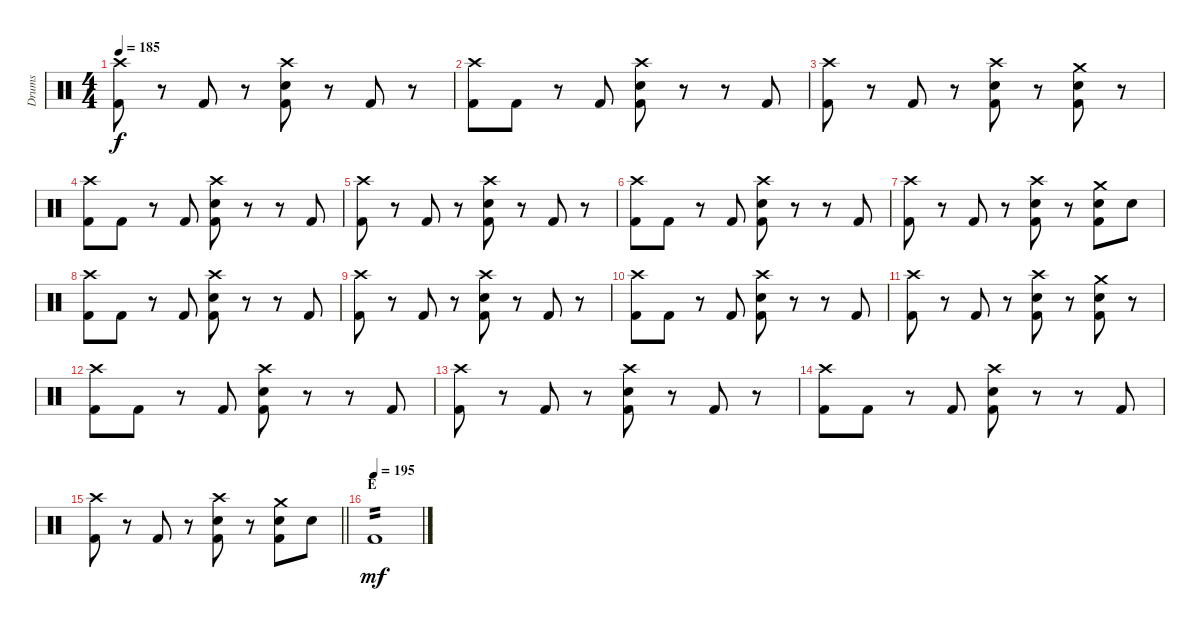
\track ("Drums" "Drums") {instrument percussion}
\staff {score}
\articulation defaults
\ts (4 4)
\tempo 185
\clef neutral
\ks c
("Crash high (hit)" "Kick (hit) 2").8{dy f} r.8 "Kick (hit) 2".8 r.8 ("Crash high (hit)" "Snare (hit) 2" "Kick (hit) 2").8 r.8 "Kick (hit) 2".8 r.8 |
("Crash high (hit)" "Kick (hit) 2").8 "Kick (hit) 2".8 r.8 "Kick (hit) 2".8 ("Crash high (hit)" "Snare (hit) 2" "Kick (hit) 2").8 r.8 r.8 "Kick (hit) 2".8 |
("Crash high (hit)" "Kick (hit) 2").8 r.8 "Kick (hit) 2".8 r.8 ("Crash high (hit)" "Snare (hit) 2" "Kick (hit) 2").8 r.8 ("Crash medium (hit)" "Snare (hit) 2" "Kick (hit) 2").8 r.8 |
("Crash high (hit)" "Kick (hit) 2").8 "Kick (hit) 2".8 r.8 "Kick (hit) 2".8 ("Crash high (hit)" "Snare (hit) 2" "Kick (hit) 2").8 r.8 r.8 "Kick (hit) 2".8 |
("Crash high (hit)" "Kick (hit) 2").8 r.8 "Kick (hit) 2".8 r.8 ("Crash high (hit)" "Snare (hit) 2" "Kick (hit) 2").8 r.8 "Kick (hit) 2".8 r.8 |
("Crash high (hit)" "Kick (hit) 2").8 "Kick (hit) 2".8 r.8 "Kick (hit) 2".8 ("Crash high (hit)" "Snare (hit) 2" "Kick (hit) 2").8 r.8 r.8 "Kick (hit) 2".8 |
("Crash high (hit)" "Kick (hit) 2").8 r.8 "Kick (hit) 2".8 r.8 ("Crash high (hit)" "Snare (hit) 2" "Kick (hit) 2").8 r.8 ("Crash medium (hit)" "Snare (hit) 2" "Kick (hit) 2").8 "Snare (hit) 2".8 |
("Crash high (hit)" "Kick (hit) 2").8 "Kick (hit) 2".8 r.8 "Kick (hit) 2".8 ("Crash high (hit)" "Snare (hit) 2" "Kick (hit) 2").8 r.8 r.8 "Kick (hit) 2".8 |
("Crash high (hit)" "Kick (hit) 2").8 r.8 "Kick (hit) 2".8 r.8 ("Crash high (hit)" "Snare (hit) 2" "Kick (hit) 2").8 r.8 "Kick (hit) 2".8 r.8 |
("Crash high (hit)" "Kick (hit) 2").8 "Kick (hit) 2".8 r.8 "Kick (hit) 2".8 ("Crash high (hit)" "Snare (hit) 2" "Kick (hit) 2").8 r.8 r.8 "Kick (hit) 2".8 |
("Crash high (hit)" "Kick (hit) 2").8 r.8 "Kick (hit) 2".8 r.8 ("Crash high (hit)" "Snare (hit) 2" "Kick (hit) 2").8 r.8 ("Crash medium (hit)" "Snare (hit) 2" "Kick (hit) 2").8 r.8 |
("Crash high (hit)" "Kick (hit) 2").8 "Kick (hit) 2".8 r.8 "Kick (hit) 2".8 ("Crash high (hit)" "Snare (hit) 2" "Kick (hit) 2").8 r.8 r.8 "Kick (hit) 2".8 |
("Crash high (hit)" "Kick (hit) 2").8 r.8 "Kick (hit) 2".8 r.8 ("Crash high (hit)" "Snare (hit) 2" "Kick (hit) 2").8 r.8 "Kick (hit) 2".8 r.8 |
("Crash high (hit)" "Kick (hit) 2").8 "Kick (hit) 2".8 r.8 "Kick (hit) 2".8 ("Crash high (hit)" "Snare (hit) 2" "Kick (hit) 2").8 r.8 r.8 "Kick (hit) 2".8 |
\barLineRight lightlight
("Crash high (hit)" "Kick (hit) 2").8 r.8 "Kick (hit) 2".8 r.8 ("Crash high (hit)" "Snare (hit) 2" "Kick (hit) 2").8 r.8 ("Crash medium (hit)" "Snare (hit) 2" "Kick (hit) 2").8 "Snare (hit) 2".8 |
\section ("" "E")
\tempo (195)
"Kick (hit) 2".1{tp 2 dy mf}
